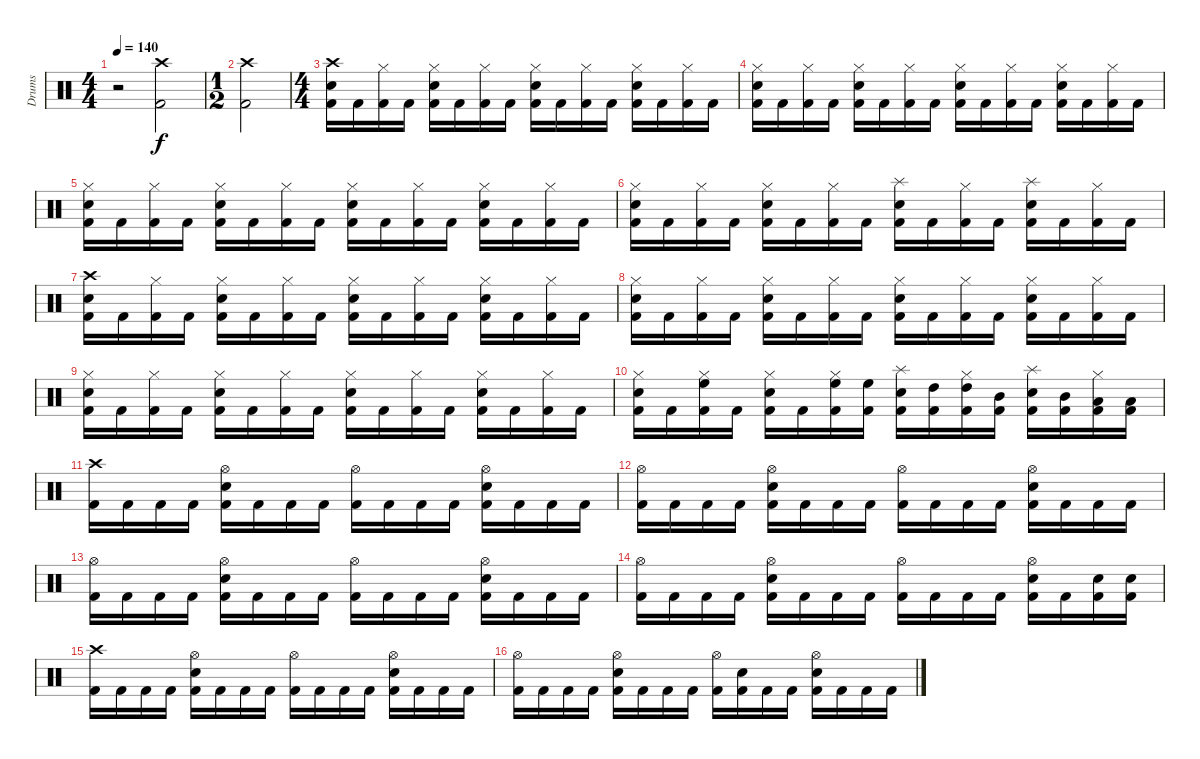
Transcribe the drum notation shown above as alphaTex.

\track ("Drums" "Drums") {instrument percussion}
\staff {score}
\articulation defaults
\ts (4 4)
\tempo 140
\clef neutral
\ks c
r.2{dy f} ("Kick (hit) 2" "Crash high (hit)").2 |
\ts (1 2)
("Kick (hit) 2" "Crash high (hit)").2 |
\ts (4 4)
("Kick (hit) 2" "Electric Snare (hit)" "Crash high (hit)").16 "Kick (hit) 2".16 ("Kick (hit) 2" "Hi-Hat (closed)").16 "Kick (hit) 2".16 ("Kick (hit) 2" "Electric Snare (hit)" "Hi-Hat (closed)").16 "Kick (hit) 2".16 ("Kick (hit) 2" "Hi-Hat (closed)").16 "Kick (hit) 2".16 ("Kick (hit) 2" "Electric Snare (hit)" "Hi-Hat (closed)").16 "Kick (hit) 2".16 ("Kick (hit) 2" "Hi-Hat (closed)").16 "Kick (hit) 2".16 ("Kick (hit) 2" "Electric Snare (hit)" "Hi-Hat (closed)").16 "Kick (hit) 2".16 ("Kick (hit) 2" "Hi-Hat (closed)").16 "Kick (hit) 2".16 |
("Kick (hit) 2" "Electric Snare (hit)" "Hi-Hat (closed)").16 "Kick (hit) 2".16 ("Kick (hit) 2" "Hi-Hat (closed)").16 "Kick (hit) 2".16 ("Kick (hit) 2" "Electric Snare (hit)" "Hi-Hat (closed)").16 "Kick (hit) 2".16 ("Kick (hit) 2" "Hi-Hat (closed)").16 "Kick (hit) 2".16 ("Kick (hit) 2" "Electric Snare (hit)" "Hi-Hat (closed)").16 "Kick (hit) 2".16 ("Kick (hit) 2" "Hi-Hat (closed)").16 "Kick (hit) 2".16 ("Kick (hit) 2" "Electric Snare (hit)" "Hi-Hat (closed)").16 "Kick (hit) 2".16 ("Kick (hit) 2" "Hi-Hat (closed)").16 "Kick (hit) 2".16 |
("Kick (hit) 2" "Electric Snare (hit)" "Hi-Hat (closed)").16 "Kick (hit) 2".16 ("Kick (hit) 2" "Hi-Hat (closed)").16 "Kick (hit) 2".16 ("Kick (hit) 2" "Electric Snare (hit)" "Hi-Hat (closed)").16 "Kick (hit) 2".16 ("Kick (hit) 2" "Hi-Hat (closed)").16 "Kick (hit) 2".16 ("Kick (hit) 2" "Electric Snare (hit)" "Hi-Hat (closed)").16 "Kick (hit) 2".16 ("Kick (hit) 2" "Hi-Hat (closed)").16 "Kick (hit) 2".16 ("Kick (hit) 2" "Electric Snare (hit)" "Hi-Hat (closed)").16 "Kick (hit) 2".16 ("Kick (hit) 2" "Hi-Hat (closed)").16 "Kick (hit) 2".16 |
("Kick (hit) 2" "Electric Snare (hit)" "Hi-Hat (closed)").16 "Kick (hit) 2".16 ("Kick (hit) 2" "Hi-Hat (closed)").16 "Kick (hit) 2".16 ("Kick (hit) 2" "Electric Snare (hit)" "Hi-Hat (closed)").16 "Kick (hit) 2".16 ("Kick (hit) 2" "Hi-Hat (closed)").16 "Kick (hit) 2".16 ("Kick (hit) 2" "Electric Snare (hit)" "Splash (hit)").16 "Kick (hit) 2".16 ("Kick (hit) 2" "Hi-Hat (closed)").16 "Kick (hit) 2".16 ("Kick (hit) 2" "Electric Snare (hit)" "Splash (hit)").16 "Kick (hit) 2".16 ("Kick (hit) 2" "Hi-Hat (closed)").16 "Kick (hit) 2".16 |
("Kick (hit) 2" "Electric Snare (hit)" "Crash high (hit)").16 "Kick (hit) 2".16 ("Kick (hit) 2" "Hi-Hat (closed)").16 "Kick (hit) 2".16 ("Kick (hit) 2" "Electric Snare (hit)" "Hi-Hat (closed)").16 "Kick (hit) 2".16 ("Kick (hit) 2" "Hi-Hat (closed)").16 "Kick (hit) 2".16 ("Kick (hit) 2" "Electric Snare (hit)" "Hi-Hat (closed)").16 "Kick (hit) 2".16 ("Kick (hit) 2" "Hi-Hat (closed)").16 "Kick (hit) 2".16 ("Kick (hit) 2" "Electric Snare (hit)" "Hi-Hat (closed)").16 "Kick (hit) 2".16 ("Kick (hit) 2" "Hi-Hat (closed)").16 "Kick (hit) 2".16 |
("Kick (hit) 2" "Electric Snare (hit)" "Hi-Hat (closed)").16 "Kick (hit) 2".16 ("Kick (hit) 2" "Hi-Hat (closed)").16 "Kick (hit) 2".16 ("Kick (hit) 2" "Electric Snare (hit)" "Hi-Hat (closed)").16 "Kick (hit) 2".16 ("Kick (hit) 2" "Hi-Hat (closed)").16 "Kick (hit) 2".16 ("Kick (hit) 2" "Electric Snare (hit)" "Hi-Hat (closed)").16 "Kick (hit) 2".16 ("Kick (hit) 2" "Hi-Hat (closed)").16 "Kick (hit) 2".16 ("Kick (hit) 2" "Electric Snare (hit)" "Hi-Hat (closed)").16 "Kick (hit) 2".16 ("Kick (hit) 2" "Hi-Hat (closed)").16 "Kick (hit) 2".16 |
("Kick (hit) 2" "Electric Snare (hit)" "Hi-Hat (closed)").16 "Kick (hit) 2".16 ("Kick (hit) 2" "Hi-Hat (closed)").16 "Kick (hit) 2".16 ("Kick (hit) 2" "Electric Snare (hit)" "Hi-Hat (closed)").16 "Kick (hit) 2".16 ("Kick (hit) 2" "Hi-Hat (closed)").16 "Kick (hit) 2".16 ("Kick (hit) 2" "Electric Snare (hit)" "Hi-Hat (closed)").16 "Kick (hit) 2".16 ("Kick (hit) 2" "Hi-Hat (closed)").16 "Kick (hit) 2".16 ("Kick (hit) 2" "Electric Snare (hit)" "Hi-Hat (closed)").16 "Kick (hit) 2".16 ("Kick (hit) 2" "Hi-Hat (closed)").16 "Kick (hit) 2".16 |
("Kick (hit) 2" "Electric Snare (hit)" "Hi-Hat (closed)").16 "Kick (hit) 2".16 ("Kick (hit) 2" "Hi-Hat (closed)" "High Floor Tom (hit)").16 "Kick (hit) 2".16 ("Kick (hit) 2" "Electric Snare (hit)" "Hi-Hat (closed)").16 "Kick (hit) 2".16 ("Kick (hit) 2" "Hi-Hat (closed)" "High Floor Tom (hit)").16 ("Kick (hit) 2" "High Floor Tom (hit)").16 ("Kick (hit) 2" "Electric Snare (hit)" "Splash (hit)").16 ("Kick (hit) 2" "High Tom (hit)").16 ("Kick (hit) 2" "Hi-Hat (closed)" "High Tom (hit)").16 ("Kick (hit) 2" "Mid Tom (hit)").16 ("Kick (hit) 2" "Electric Snare (hit)" "Splash (hit)").16 ("Kick (hit) 2" "Mid Tom (hit)").16 ("Kick (hit) 2" "Hi-Hat (closed)" "Low Tom (hit)").16 ("Kick (hit) 2" "Low Tom (hit)").16 |
("Kick (hit) 2" "Crash high (hit)").16 "Kick (hit) 2".16 "Kick (hit) 2".16 "Kick (hit) 2".16 ("Kick (hit) 2" "Electric Snare (hit)" "Hi-Hat (open)").16 "Kick (hit) 2".16 "Kick (hit) 2".16 "Kick (hit) 2".16 ("Kick (hit) 2" "Hi-Hat (open)").16 "Kick (hit) 2".16 "Kick (hit) 2".16 "Kick (hit) 2".16 ("Kick (hit) 2" "Electric Snare (hit)" "Hi-Hat (open)").16 "Kick (hit) 2".16 "Kick (hit) 2".16 "Kick (hit) 2".16 |
("Kick (hit) 2" "Hi-Hat (open)").16 "Kick (hit) 2".16 "Kick (hit) 2".16 "Kick (hit) 2".16 ("Kick (hit) 2" "Electric Snare (hit)" "Hi-Hat (open)").16 "Kick (hit) 2".16 "Kick (hit) 2".16 "Kick (hit) 2".16 ("Kick (hit) 2" "Hi-Hat (open)").16 "Kick (hit) 2".16 "Kick (hit) 2".16 "Kick (hit) 2".16 ("Kick (hit) 2" "Electric Snare (hit)" "Hi-Hat (open)").16 "Kick (hit) 2".16 "Kick (hit) 2".16 "Kick (hit) 2".16 |
("Kick (hit) 2" "Hi-Hat (open)").16 "Kick (hit) 2".16 "Kick (hit) 2".16 "Kick (hit) 2".16 ("Kick (hit) 2" "Electric Snare (hit)" "Hi-Hat (open)").16 "Kick (hit) 2".16 "Kick (hit) 2".16 "Kick (hit) 2".16 ("Kick (hit) 2" "Hi-Hat (open)").16 "Kick (hit) 2".16 "Kick (hit) 2".16 "Kick (hit) 2".16 ("Kick (hit) 2" "Electric Snare (hit)" "Hi-Hat (open)").16 "Kick (hit) 2".16 "Kick (hit) 2".16 "Kick (hit) 2".16 |
("Kick (hit) 2" "Hi-Hat (open)").16 "Kick (hit) 2".16 "Kick (hit) 2".16 "Kick (hit) 2".16 ("Kick (hit) 2" "Electric Snare (hit)" "Hi-Hat (open)").16 "Kick (hit) 2".16 "Kick (hit) 2".16 "Kick (hit) 2".16 ("Kick (hit) 2" "Hi-Hat (open)").16 "Kick (hit) 2".16 "Kick (hit) 2".16 "Kick (hit) 2".16 ("Kick (hit) 2" "Electric Snare (hit)" "Hi-Hat (open)").16 "Kick (hit) 2".16 ("Kick (hit) 2" "Electric Snare (hit)").16 ("Kick (hit) 2" "Electric Snare (hit)").16 |
("Kick (hit) 2" "Crash high (hit)").16 "Kick (hit) 2".16 "Kick (hit) 2".16 "Kick (hit) 2".16 ("Kick (hit) 2" "Electric Snare (hit)" "Hi-Hat (open)").16 "Kick (hit) 2".16 "Kick (hit) 2".16 "Kick (hit) 2".16 ("Kick (hit) 2" "Hi-Hat (open)").16 "Kick (hit) 2".16 "Kick (hit) 2".16 "Kick (hit) 2".16 ("Kick (hit) 2" "Electric Snare (hit)" "Hi-Hat (open)").16 "Kick (hit) 2".16 "Kick (hit) 2".16 "Kick (hit) 2".16 |
("Kick (hit) 2" "Hi-Hat (open)").16 "Kick (hit) 2".16 "Kick (hit) 2".16 "Kick (hit) 2".16 ("Kick (hit) 2" "Electric Snare (hit)" "Hi-Hat (open)").16 "Kick (hit) 2".16 "Kick (hit) 2".16 "Kick (hit) 2".16 ("Kick (hit) 2" "Hi-Hat (open)").16 ("Kick (hit) 2" "Electric Snare (hit)").16 "Kick (hit) 2".16 "Kick (hit) 2".16 ("Kick (hit) 2" "Electric Snare (hit)" "Hi-Hat (open)").16 "Kick (hit) 2".16 "Kick (hit) 2".16 "Kick (hit) 2".16
